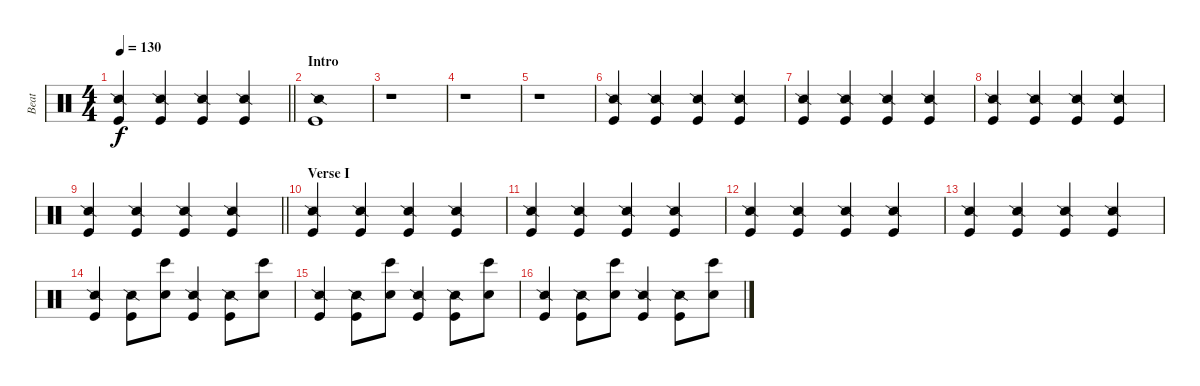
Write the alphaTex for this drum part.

\track ("Beat" "Beat") {instrument percussion}
\staff {score}
\articulation defaults
\ts (4 4)
\tempo 130
\clef neutral
\barLineRight lightlight
\ks c
("Snare (side stick) 2" "Kick (hit)").4{dy f} ("Snare (side stick) 2" "Kick (hit)").4 ("Snare (side stick) 2" "Kick (hit)").4 ("Snare (side stick) 2" "Kick (hit)").4 |
\section ("" "Intro")
("Snare (side stick) 2" "Kick (hit)").1 |
r.1 |
r.1 |
r.1 |
("Snare (side stick) 2" "Kick (hit)").4 ("Snare (side stick) 2" "Kick (hit)").4 ("Snare (side stick) 2" "Kick (hit)").4 ("Snare (side stick) 2" "Kick (hit)").4 |
("Snare (side stick) 2" "Kick (hit)").4 ("Snare (side stick) 2" "Kick (hit)").4 ("Snare (side stick) 2" "Kick (hit)").4 ("Snare (side stick) 2" "Kick (hit)").4 |
("Snare (side stick) 2" "Kick (hit)").4 ("Snare (side stick) 2" "Kick (hit)").4 ("Snare (side stick) 2" "Kick (hit)").4 ("Snare (side stick) 2" "Kick (hit)").4 |
\barLineRight lightlight
("Snare (side stick) 2" "Kick (hit)").4 ("Snare (side stick) 2" "Kick (hit)").4 ("Snare (side stick) 2" "Kick (hit)").4 ("Snare (side stick) 2" "Kick (hit)").4 |
\section ("" "Verse I")
("Snare (side stick) 2" "Kick (hit)").4 ("Snare (side stick) 2" "Kick (hit)").4 ("Snare (side stick) 2" "Kick (hit)").4 ("Snare (side stick) 2" "Kick (hit)").4 |
("Snare (side stick) 2" "Kick (hit)").4 ("Snare (side stick) 2" "Kick (hit)").4 ("Snare (side stick) 2" "Kick (hit)").4 ("Snare (side stick) 2" "Kick (hit)").4 |
("Snare (side stick) 2" "Kick (hit)").4 ("Snare (side stick) 2" "Kick (hit)").4 ("Snare (side stick) 2" "Kick (hit)").4 ("Snare (side stick) 2" "Kick (hit)").4 |
("Snare (side stick) 2" "Kick (hit)").4 ("Snare (side stick) 2" "Kick (hit)").4 ("Snare (side stick) 2" "Kick (hit)").4 ("Snare (side stick) 2" "Kick (hit)").4 |
("Snare (side stick) 2" "Kick (hit)").4 ("Snare (side stick) 2" "Kick (hit)").8 ("Hand Clap (hit)" "Bongo High (hit)").8 ("Snare (side stick) 2" "Kick (hit)").4 ("Snare (side stick) 2" "Kick (hit)").8 ("Hand Clap (hit)" "Bongo High (hit)").8 |
("Snare (side stick) 2" "Kick (hit)").4 ("Snare (side stick) 2" "Kick (hit)").8 ("Hand Clap (hit)" "Bongo High (hit)").8 ("Snare (side stick) 2" "Kick (hit)").4 ("Snare (side stick) 2" "Kick (hit)").8 ("Hand Clap (hit)" "Bongo High (hit)").8 |
("Snare (side stick) 2" "Kick (hit)").4 ("Snare (side stick) 2" "Kick (hit)").8 ("Hand Clap (hit)" "Bongo High (hit)").8 ("Snare (side stick) 2" "Kick (hit)").4 ("Snare (side stick) 2" "Kick (hit)").8 ("Hand Clap (hit)" "Bongo High (hit)").8
